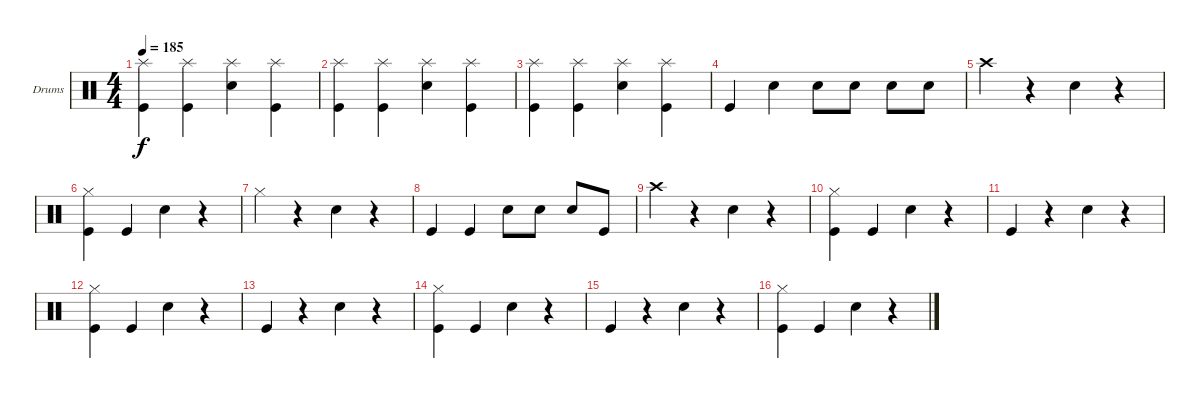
\defaultSystemsLayout 4
\bracketExtendMode groupsimilarinstruments
\firstSystemTrackNameOrientation horizontal
\otherSystemsTrackNameOrientation horizontal
\track ("Chuck Comeau" "Drums") {instrument percussion}
\staff {score}
\articulation defaults
\ts (4 4)
\tempo 185
\clef neutral
\scale
0.333333
\ks c
("Splash (hit)" "Kick (hit)").4{dy f} ("Splash (hit)" "Kick (hit)").4 ("Splash (hit)" "Snare (hit) 2").4 ("Splash (hit)" "Kick (hit)").4 |
\scale
0.333333 ("Splash (hit)" "Kick (hit)").4 ("Splash (hit)" "Kick (hit)").4 ("Splash (hit)" "Snare (hit) 2").4 ("Splash (hit)" "Kick (hit)").4 |
\scale
0.333333 ("Splash (hit)" "Kick (hit)").4 ("Splash (hit)" "Kick (hit)").4 ("Splash (hit)" "Snare (hit) 2").4 ("Splash (hit)" "Kick (hit)").4 |
\scale
0.333333 "Kick (hit)".4 "Snare (hit) 2".4 "Snare (hit) 2".8 "Snare (hit) 2".8 "Snare (hit) 2".8 "Snare (hit) 2".8 |
\scale
0.333333 "Crash high (hit)".4 r.4 "Snare (hit) 2".4 r.4 |
\scale
0.333333 ("Hi-Hat (closed)" "Kick (hit)").4 "Kick (hit)".4 "Snare (hit) 2".4 r.4 |
\scale
0.333333 "Hi-Hat (closed)".4 r.4 "Snare (hit) 2".4 r.4 |
\scale
0.333333 "Kick (hit)".4 "Kick (hit)".4 "Snare (hit) 2".8 "Snare (hit) 2".8 "Snare (hit) 2".8 "Kick (hit)".8 |
\scale
0.333333 "Crash high (hit)".4 r.4 "Snare (hit) 2".4 r.4 |
\scale
0.333333 ("Hi-Hat (closed)" "Kick (hit)").4 "Kick (hit)".4 "Snare (hit) 2".4 r.4 |
\scale
0.333333 "Kick (hit)".4 r.4 "Snare (hit) 2".4 r.4 |
\scale
0.333333 ("Hi-Hat (closed)" "Kick (hit)").4 "Kick (hit)".4 "Snare (hit) 2".4 r.4 |
\scale
0.333333 "Kick (hit)".4 r.4 "Snare (hit) 2".4 r.4 |
\scale
0.333333 ("Hi-Hat (closed)" "Kick (hit)").4 "Kick (hit)".4 "Snare (hit) 2".4 r.4 |
\scale
0.333333 "Kick (hit)".4 r.4 "Snare (hit) 2".4 r.4 |
\scale
0.333333 ("Hi-Hat (closed)" "Kick (hit)").4 "Kick (hit)".4 "Snare (hit) 2".4 r.4
